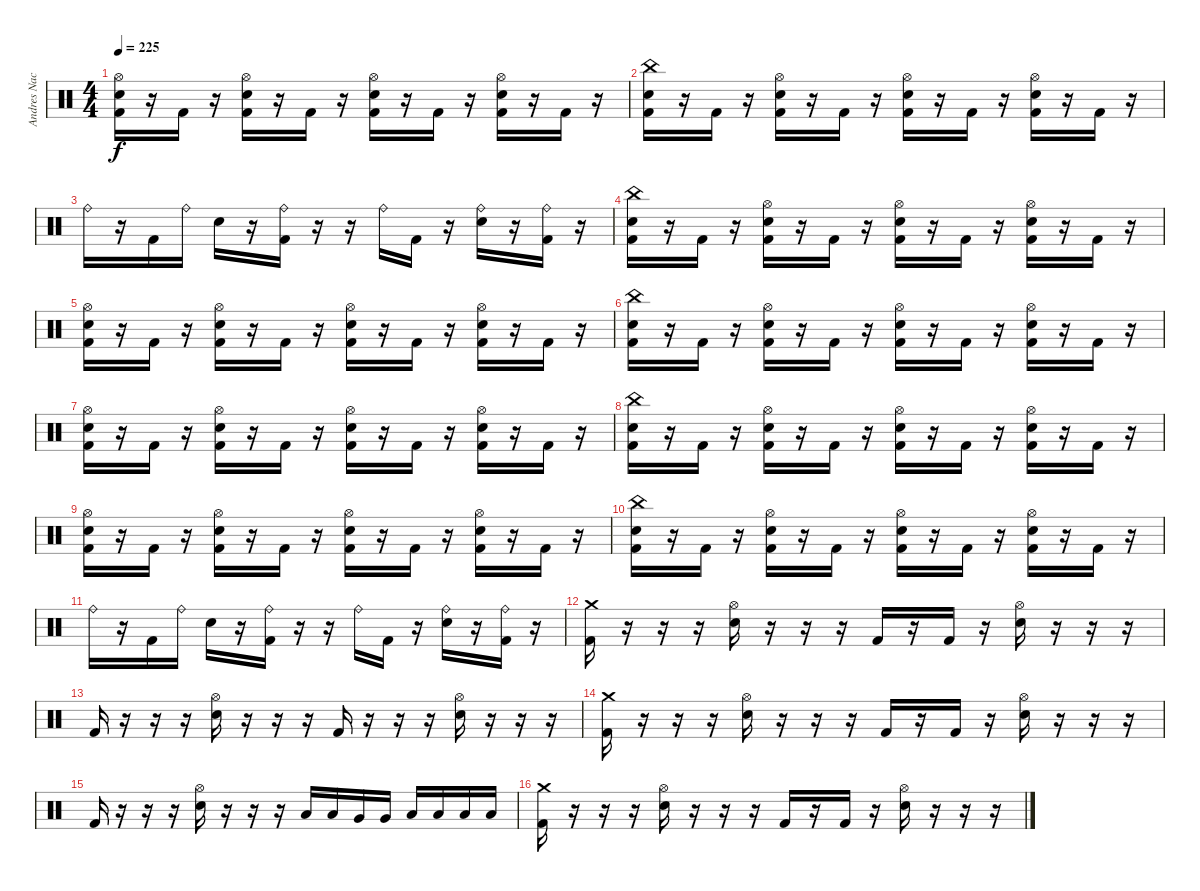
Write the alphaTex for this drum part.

\track ("Andres Nacrur" "Andres Nac") {instrument percussion}
\staff {score}
\articulation defaults
\ts (4 4)
\tempo 225
\clef neutral
\ks c
("Hi-Hat (open)" "Snare (hit) 2" "Kick (hit) 2").16{dy f} r.16 "Kick (hit) 2".16 r.16 ("Hi-Hat (open)" "Snare (hit) 2" "Kick (hit) 2").16 r.16 "Kick (hit) 2".16 r.16 ("Hi-Hat (open)" "Snare (hit) 2" "Kick (hit) 2").16 r.16 "Kick (hit) 2".16 r.16 ("Hi-Hat (open)" "Snare (hit) 2" "Kick (hit) 2").16 r.16 "Kick (hit) 2".16 r.16 |
("China (hit)" "Snare (hit) 2" "Kick (hit) 2").16 r.16 "Kick (hit) 2".16 r.16 ("Hi-Hat (open)" "Snare (hit) 2" "Kick (hit) 2").16 r.16 "Kick (hit) 2".16 r.16 ("Hi-Hat (open)" "Snare (hit) 2" "Kick (hit) 2").16 r.16 "Kick (hit) 2".16 r.16 ("Hi-Hat (open)" "Snare (hit) 2" "Kick (hit) 2").16 r.16 "Kick (hit) 2".16 r.16 |
"Ride (bell)".16 r.16 "Kick (hit) 2".16 "Ride (bell)".16 "Snare (hit) 2".16 r.16 ("Ride (bell)" "Kick (hit) 2").16 r.16 r.16 "Ride (bell)".16 "Kick (hit) 2".16 r.16 ("Ride (bell)" "Snare (hit) 2").16 r.16 ("Ride (bell)" "Kick (hit) 2").16 r.16 |
("China (hit)" "Snare (hit) 2" "Kick (hit) 2").16 r.16 "Kick (hit) 2".16 r.16 ("Hi-Hat (open)" "Snare (hit) 2" "Kick (hit) 2").16 r.16 "Kick (hit) 2".16 r.16 ("Hi-Hat (open)" "Snare (hit) 2" "Kick (hit) 2").16 r.16 "Kick (hit) 2".16 r.16 ("Hi-Hat (open)" "Snare (hit) 2" "Kick (hit) 2").16 r.16 "Kick (hit) 2".16 r.16 |
("Hi-Hat (open)" "Snare (hit) 2" "Kick (hit) 2").16 r.16 "Kick (hit) 2".16 r.16 ("Hi-Hat (open)" "Snare (hit) 2" "Kick (hit) 2").16 r.16 "Kick (hit) 2".16 r.16 ("Hi-Hat (open)" "Snare (hit) 2" "Kick (hit) 2").16 r.16 "Kick (hit) 2".16 r.16 ("Hi-Hat (open)" "Snare (hit) 2" "Kick (hit) 2").16 r.16 "Kick (hit) 2".16 r.16 |
("China (hit)" "Snare (hit) 2" "Kick (hit) 2").16 r.16 "Kick (hit) 2".16 r.16 ("Hi-Hat (open)" "Snare (hit) 2" "Kick (hit) 2").16 r.16 "Kick (hit) 2".16 r.16 ("Hi-Hat (open)" "Snare (hit) 2" "Kick (hit) 2").16 r.16 "Kick (hit) 2".16 r.16 ("Hi-Hat (open)" "Snare (hit) 2" "Kick (hit) 2").16 r.16 "Kick (hit) 2".16 r.16 |
("Hi-Hat (open)" "Snare (hit) 2" "Kick (hit) 2").16 r.16 "Kick (hit) 2".16 r.16 ("Hi-Hat (open)" "Snare (hit) 2" "Kick (hit) 2").16 r.16 "Kick (hit) 2".16 r.16 ("Hi-Hat (open)" "Snare (hit) 2" "Kick (hit) 2").16 r.16 "Kick (hit) 2".16 r.16 ("Hi-Hat (open)" "Snare (hit) 2" "Kick (hit) 2").16 r.16 "Kick (hit) 2".16 r.16 |
("China (hit)" "Snare (hit) 2" "Kick (hit) 2").16 r.16 "Kick (hit) 2".16 r.16 ("Hi-Hat (open)" "Snare (hit) 2" "Kick (hit) 2").16 r.16 "Kick (hit) 2".16 r.16 ("Hi-Hat (open)" "Snare (hit) 2" "Kick (hit) 2").16 r.16 "Kick (hit) 2".16 r.16 ("Hi-Hat (open)" "Snare (hit) 2" "Kick (hit) 2").16 r.16 "Kick (hit) 2".16 r.16 |
("Hi-Hat (open)" "Snare (hit) 2" "Kick (hit) 2").16 r.16 "Kick (hit) 2".16 r.16 ("Hi-Hat (open)" "Snare (hit) 2" "Kick (hit) 2").16 r.16 "Kick (hit) 2".16 r.16 ("Hi-Hat (open)" "Snare (hit) 2" "Kick (hit) 2").16 r.16 "Kick (hit) 2".16 r.16 ("Hi-Hat (open)" "Snare (hit) 2" "Kick (hit) 2").16 r.16 "Kick (hit) 2".16 r.16 |
("China (hit)" "Snare (hit) 2" "Kick (hit) 2").16 r.16 "Kick (hit) 2".16 r.16 ("Hi-Hat (open)" "Snare (hit) 2" "Kick (hit) 2").16 r.16 "Kick (hit) 2".16 r.16 ("Hi-Hat (open)" "Snare (hit) 2" "Kick (hit) 2").16 r.16 "Kick (hit) 2".16 r.16 ("Hi-Hat (open)" "Snare (hit) 2" "Kick (hit) 2").16 r.16 "Kick (hit) 2".16 r.16 |
"Ride (bell)".16 r.16 "Kick (hit) 2".16 "Ride (bell)".16 "Snare (hit) 2".16 r.16 ("Ride (bell)" "Kick (hit) 2").16 r.16 r.16 "Ride (bell)".16 "Kick (hit) 2".16 r.16 ("Ride (bell)" "Snare (hit) 2").16 r.16 ("Ride (bell)" "Kick (hit) 2").16 r.16 |
("Crash medium (hit)" "Kick (hit) 2").16 r.16 r.16 r.16 ("Hi-Hat (open)" "Snare (hit) 2").16 r.16 r.16 r.16 "Kick (hit) 2".16 r.16 "Kick (hit) 2".16 r.16 ("Hi-Hat (open)" "Snare (hit) 2").16 r.16 r.16 r.16 |
"Kick (hit) 2".16 r.16 r.16 r.16 ("Hi-Hat (open)" "Snare (hit) 2").16 r.16 r.16 r.16 "Kick (hit) 2".16 r.16 r.16 r.16 ("Hi-Hat (open)" "Snare (hit) 2").16 r.16 r.16 r.16 |
("Crash medium (hit)" "Kick (hit) 2").16 r.16 r.16 r.16 ("Hi-Hat (open)" "Snare (hit) 2").16 r.16 r.16 r.16 "Kick (hit) 2".16 r.16 "Kick (hit) 2".16 r.16 ("Hi-Hat (open)" "Snare (hit) 2").16 r.16 r.16 r.16 |
"Kick (hit) 2".16 r.16 r.16 r.16 ("Hi-Hat (open)" "Snare (hit) 2").16 r.16 r.16 r.16 "Low Tom (hit)".16 "Low Tom (hit)".16 "Very Low Tom (hit)".16 "Very Low Tom (hit)".16 "Low Floor Tom (hit)".16 "Low Floor Tom (hit)".16 "Low Floor Tom (hit)".16 "Low Floor Tom (hit)".16 |
("Crash medium (hit)" "Kick (hit) 2").16 r.16 r.16 r.16 ("Hi-Hat (open)" "Snare (hit) 2").16 r.16 r.16 r.16 "Kick (hit) 2".16 r.16 "Kick (hit) 2".16 r.16 ("Hi-Hat (open)" "Snare (hit) 2").16 r.16 r.16 r.16
